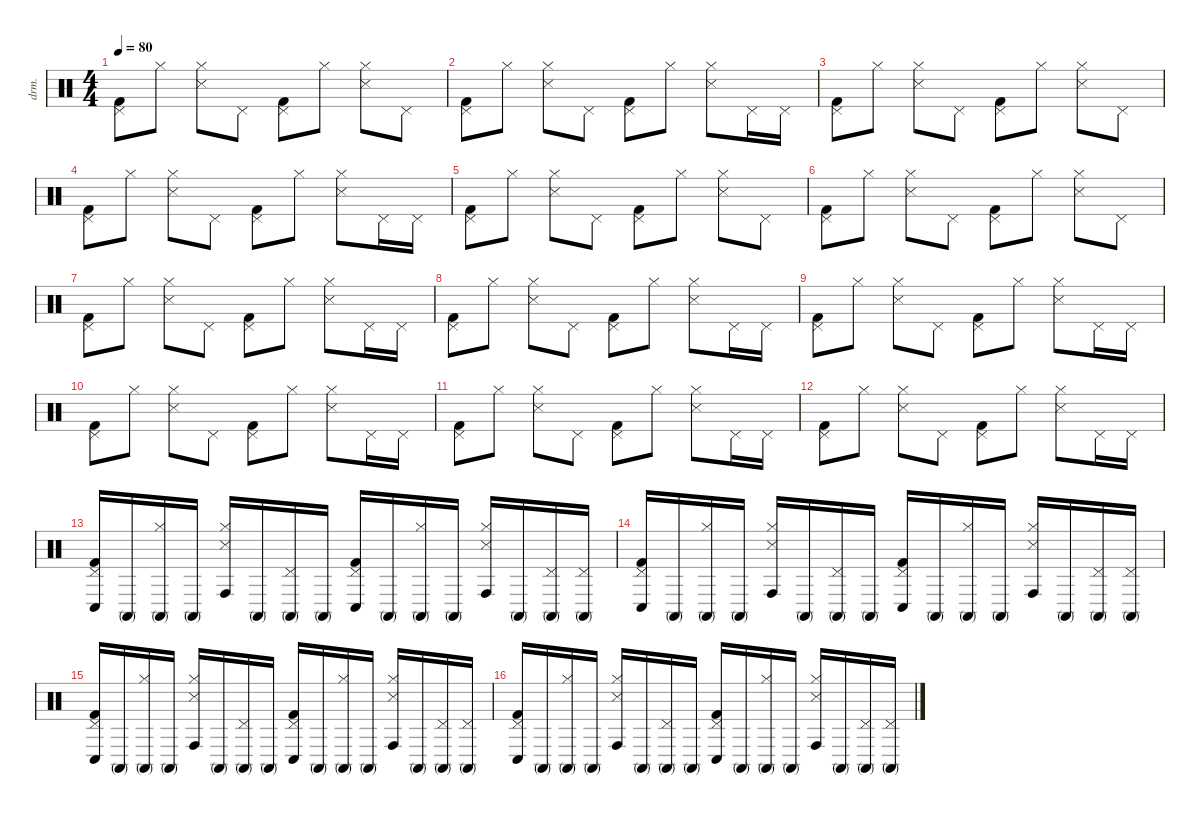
\defaultSystemsLayout 4
\hideDynamics
\bracketExtendMode nobrackets
\otherSystemsTrackNameOrientation horizontal
\track ("Percussions / Batterie" "drm.") {instrument percussion}
\staff {score}
\articulation defaults
\ts (4 4)
\tempo 80
\clef neutral
\ks c
("Pedal Hi-Hat (hit)" "Kick (hit) 2").8{dy f beam Down} "Hi-Hat (closed)".8{beam Down} ("Hi-Hat (closed)" "Snare (side stick) 3").8{beam Down} "Pedal Hi-Hat (hit)".8{beam Down} ("Pedal Hi-Hat (hit)" "Kick (hit) 2").8{beam Down} "Hi-Hat (closed)".8{beam Down} ("Hi-Hat (closed)" "Snare (side stick) 3").8{beam Down} "Pedal Hi-Hat (hit)".8{beam Down} |
("Pedal Hi-Hat (hit)" "Kick (hit) 2").8{beam Down} "Hi-Hat (closed)".8{beam Down} ("Hi-Hat (closed)" "Snare (side stick) 3").8{beam Down} "Pedal Hi-Hat (hit)".8{beam Down} ("Pedal Hi-Hat (hit)" "Kick (hit) 2").8{beam Down} "Hi-Hat (closed)".8{beam Down} ("Hi-Hat (closed)" "Snare (side stick) 3").8{beam Down} "Pedal Hi-Hat (hit)".16{beam Down} "Pedal Hi-Hat (hit)".16{beam Down} |
("Pedal Hi-Hat (hit)" "Kick (hit) 2").8{beam Down} "Hi-Hat (closed)".8{beam Down} ("Hi-Hat (closed)" "Snare (side stick) 3").8{beam Down} "Pedal Hi-Hat (hit)".8{beam Down} ("Pedal Hi-Hat (hit)" "Kick (hit) 2").8{beam Down} "Hi-Hat (closed)".8{beam Down} ("Hi-Hat (closed)" "Snare (side stick) 3").8{beam Down} "Pedal Hi-Hat (hit)".8{beam Down} |
("Pedal Hi-Hat (hit)" "Kick (hit) 2").8{beam Down} "Hi-Hat (closed)".8{beam Down} ("Hi-Hat (closed)" "Snare (side stick) 3").8{beam Down} "Pedal Hi-Hat (hit)".8{beam Down} ("Pedal Hi-Hat (hit)" "Kick (hit) 2").8{beam Down} "Hi-Hat (closed)".8{beam Down} ("Hi-Hat (closed)" "Snare (side stick) 3").8{beam Down} "Pedal Hi-Hat (hit)".16{beam Down} "Pedal Hi-Hat (hit)".16{beam Down} |
("Pedal Hi-Hat (hit)" "Kick (hit) 2").8{beam Down} "Hi-Hat (closed)".8{beam Down} ("Hi-Hat (closed)" "Snare (side stick) 3").8{beam Down} "Pedal Hi-Hat (hit)".8{beam Down} ("Pedal Hi-Hat (hit)" "Kick (hit) 2").8{beam Down} "Hi-Hat (closed)".8{beam Down} ("Hi-Hat (closed)" "Snare (side stick) 3").8{beam Down} "Pedal Hi-Hat (hit)".8{beam Down} |
("Pedal Hi-Hat (hit)" "Kick (hit) 2").8{beam Down} "Hi-Hat (closed)".8{beam Down} ("Hi-Hat (closed)" "Snare (side stick) 3").8{beam Down} "Pedal Hi-Hat (hit)".8{beam Down} ("Pedal Hi-Hat (hit)" "Kick (hit) 2").8{beam Down} "Hi-Hat (closed)".8{beam Down} ("Hi-Hat (closed)" "Snare (side stick) 3").8{beam Down} "Pedal Hi-Hat (hit)".8{beam Down} |
("Pedal Hi-Hat (hit)" "Kick (hit) 2").8{beam Down} "Hi-Hat (closed)".8{beam Down} ("Hi-Hat (closed)" "Snare (side stick) 3").8{beam Down} "Pedal Hi-Hat (hit)".8{beam Down} ("Pedal Hi-Hat (hit)" "Kick (hit) 2").8{beam Down} "Hi-Hat (closed)".8{beam Down} ("Hi-Hat (closed)" "Snare (side stick) 3").8{beam Down} "Pedal Hi-Hat (hit)".16{beam Down} "Pedal Hi-Hat (hit)".16{beam Down} |
("Pedal Hi-Hat (hit)" "Kick (hit) 2").8{beam Down} "Hi-Hat (closed)".8{beam Down} ("Hi-Hat (closed)" "Snare (side stick) 3").8{beam Down} "Pedal Hi-Hat (hit)".8{beam Down} ("Pedal Hi-Hat (hit)" "Kick (hit) 2").8{beam Down} "Hi-Hat (closed)".8{beam Down} ("Hi-Hat (closed)" "Snare (side stick) 3").8{beam Down} "Pedal Hi-Hat (hit)".16{beam Down} "Pedal Hi-Hat (hit)".16{beam Down} |
("Pedal Hi-Hat (hit)" "Kick (hit) 2").8{beam Down} "Hi-Hat (closed)".8{beam Down} ("Hi-Hat (closed)" "Snare (side stick) 3").8{beam Down} "Pedal Hi-Hat (hit)".8{beam Down} ("Pedal Hi-Hat (hit)" "Kick (hit) 2").8{beam Down} "Hi-Hat (closed)".8{beam Down} ("Hi-Hat (closed)" "Snare (side stick) 3").8{beam Down} "Pedal Hi-Hat (hit)".16{beam Down} "Pedal Hi-Hat (hit)".16{beam Down} |
("Pedal Hi-Hat (hit)" "Kick (hit) 2").8{beam Down} "Hi-Hat (closed)".8{beam Down} ("Hi-Hat (closed)" "Snare (side stick) 3").8{beam Down} "Pedal Hi-Hat (hit)".8{beam Down} ("Pedal Hi-Hat (hit)" "Kick (hit) 2").8{beam Down} "Hi-Hat (closed)".8{beam Down} ("Hi-Hat (closed)" "Snare (side stick) 3").8{beam Down} "Pedal Hi-Hat (hit)".16{beam Down} "Pedal Hi-Hat (hit)".16{beam Down} |
("Pedal Hi-Hat (hit)" "Kick (hit) 2").8{beam Down} "Hi-Hat (closed)".8{beam Down} ("Hi-Hat (closed)" "Snare (side stick) 3").8{beam Down} "Pedal Hi-Hat (hit)".8{beam Down} ("Pedal Hi-Hat (hit)" "Kick (hit) 2").8{beam Down} "Hi-Hat (closed)".8{beam Down} ("Hi-Hat (closed)" "Snare (side stick) 3").8{beam Down} "Pedal Hi-Hat (hit)".16{beam Down} "Pedal Hi-Hat (hit)".16{beam Down} |
("Pedal Hi-Hat (hit)" "Kick (hit) 2").8{beam Down} "Hi-Hat (closed)".8{beam Down} ("Hi-Hat (closed)" "Snare (side stick) 3").8{beam Down} "Pedal Hi-Hat (hit)".8{beam Down} ("Pedal Hi-Hat (hit)" "Kick (hit) 2").8{beam Down} "Hi-Hat (closed)".8{beam Down} ("Hi-Hat (closed)" "Snare (side stick) 3").8{beam Down} "Pedal Hi-Hat (hit)".16{beam Down} "Pedal Hi-Hat (hit)".16{beam Down} |
("Conga low (hit)" "Pedal Hi-Hat (hit)" "Kick (hit) 2").16{dy ppp beam Up} "Conga high (mute)".16{beam Up} ("Conga high (mute)" "Hi-Hat (closed)").16{beam Up} "Conga high (mute)".16{beam Up} ("Conga high (hit)" "Hi-Hat (closed)" "Snare (side stick) 3").16{beam Up} "Conga high (mute)".16{dy pp beam Up} ("Conga high (mute)" "Pedal Hi-Hat (hit)").16{beam Up} "Conga high (mute)".16{beam Up} ("Conga low (hit)" "Pedal Hi-Hat (hit)" "Kick (hit) 2").16{beam Up} "Conga high (mute)".16{beam Up} ("Conga high (mute)" "Hi-Hat (closed)").16{beam Up} "Conga high (mute)".16{beam Up} ("Conga high (hit)" "Hi-Hat (closed)" "Snare (side stick) 3").16{dy p beam Up} "Conga high (mute)".16{beam Up} ("Conga high (mute)" "Pedal Hi-Hat (hit)").16{beam Up} ("Conga high (mute)" "Pedal Hi-Hat (hit)").16{beam Up} |
("Conga low (hit)" "Pedal Hi-Hat (hit)" "Kick (hit) 2").16{beam Up} "Conga high (mute)".16{beam Up} ("Conga high (mute)" "Hi-Hat (closed)").16{beam Up} "Conga high (mute)".16{beam Up} ("Conga high (hit)" "Hi-Hat (closed)" "Snare (side stick) 3").16{dy mp beam Up} "Conga high (mute)".16{dy mf beam Up} ("Conga high (mute)" "Pedal Hi-Hat (hit)").16{beam Up} "Conga high (mute)".16{beam Up} ("Conga low (hit)" "Pedal Hi-Hat (hit)" "Kick (hit) 2").16{dy mp beam Up} "Conga high (mute)".16{dy mf beam Up} ("Conga high (mute)" "Hi-Hat (closed)").16{beam Up} "Conga high (mute)".16{beam Up} ("Conga high (hit)" "Hi-Hat (closed)" "Snare (side stick) 3").16{beam Up} "Conga high (mute)".16{beam Up} ("Conga high (mute)" "Pedal Hi-Hat (hit)").16{beam Up} ("Conga high (mute)" "Pedal Hi-Hat (hit)").16{beam Up} |
("Conga low (hit)" "Pedal Hi-Hat (hit)" "Kick (hit) 2").16{beam Up} "Conga high (mute)".16{beam Up} ("Conga high (mute)" "Hi-Hat (closed)").16{beam Up} "Conga high (mute)".16{beam Up} ("Conga high (hit)" "Hi-Hat (closed)" "Snare (side stick) 3").16{beam Up} "Conga high (mute)".16{beam Up} ("Conga high (mute)" "Pedal Hi-Hat (hit)").16{beam Up} "Conga high (mute)".16{beam Up} ("Conga low (hit)" "Pedal Hi-Hat (hit)" "Kick (hit) 2").16{beam Up} "Conga high (mute)".16{dy mp beam Up} ("Conga high (mute)" "Hi-Hat (closed)").16{beam Up} "Conga high (mute)".16{beam Up} ("Conga high (hit)" "Hi-Hat (closed)" "Snare (side stick) 3").16{beam Up} "Conga high (mute)".16{beam Up} ("Conga high (mute)" "Pedal Hi-Hat (hit)").16{beam Up} ("Conga high (mute)" "Pedal Hi-Hat (hit)").16{beam Up} |
("Conga low (hit)" "Pedal Hi-Hat (hit)" "Kick (hit) 2").16{beam Up} "Conga high (mute)".16{dy p beam Up} ("Conga high (mute)" "Hi-Hat (closed)").16{beam Up} "Conga high (mute)".16{beam Up} ("Conga high (hit)" "Hi-Hat (closed)" "Snare (side stick) 3").16{beam Up} "Conga high (mute)".16{beam Up} ("Conga high (mute)" "Pedal Hi-Hat (hit)").16{beam Up} "Conga high (mute)".16{beam Up} ("Conga low (hit)" "Pedal Hi-Hat (hit)" "Kick (hit) 2").16{beam Up} "Conga high (mute)".16{beam Up} ("Conga high (mute)" "Hi-Hat (closed)").16{beam Up} "Conga high (mute)".16{beam Up} ("Conga high (hit)" "Hi-Hat (closed)" "Snare (side stick) 3").16{dy pp beam Up} "Conga high (mute)".16{dy p beam Up} ("Conga high (mute)" "Pedal Hi-Hat (hit)").16{beam Up} ("Conga high (mute)" "Pedal Hi-Hat (hit)").16{dy pp beam Up}
